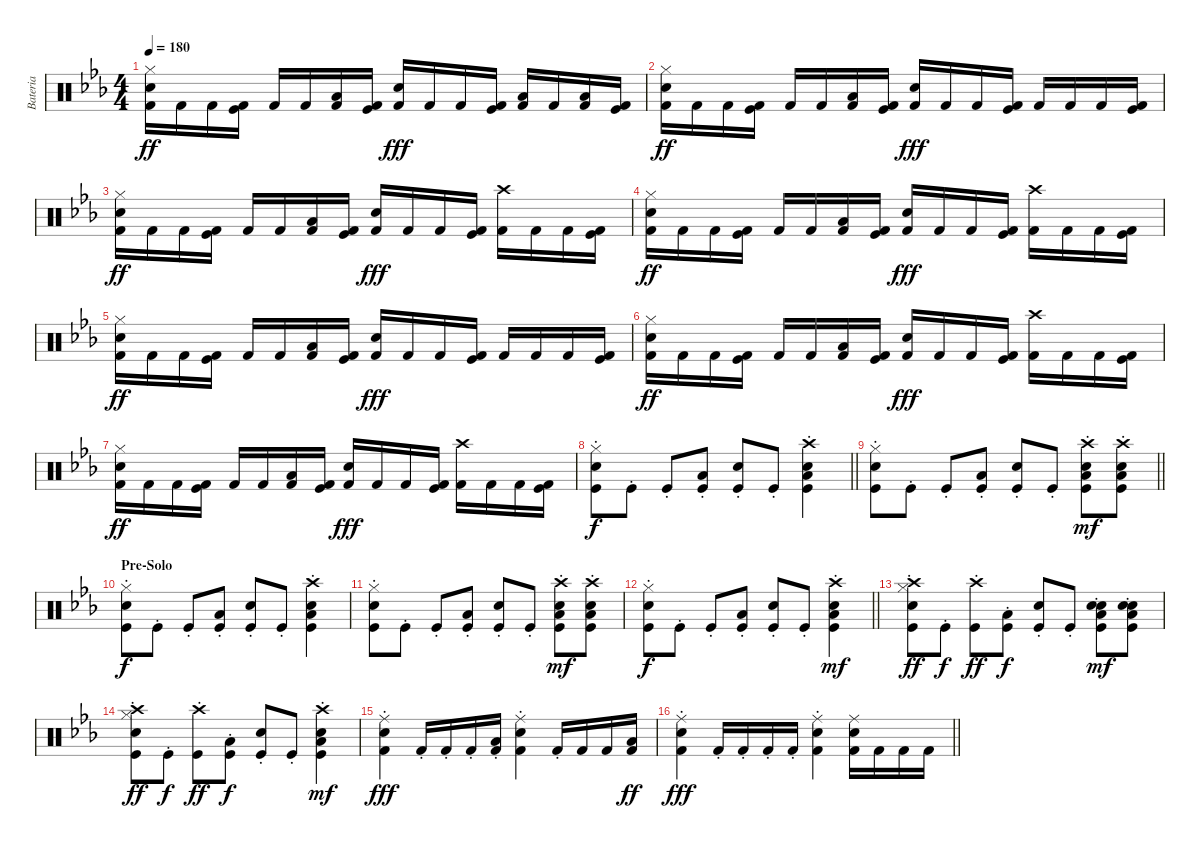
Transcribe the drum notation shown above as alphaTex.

\track ("Bateria" "Bateria") {instrument percussion}
\staff {score}
\articulation defaults
\ts (4 4)
\tempo 180
\clef neutral
\ks eb
("Hi-Hat (closed)" "Snare (hit) 2" "Kick (hit) 2").16{dy ff} "Kick (hit) 2".16 "Kick (hit) 2".16 ("Kick (hit)" "Kick (hit) 2").16 "Kick (hit) 2".16 "Kick (hit) 2".16 ("Low Tom (hit)" "Kick (hit) 2").16 ("Kick (hit)" "Kick (hit) 2").16 ("Snare (hit) 2" "Kick (hit) 2").16{dy fff} "Kick (hit) 2".16 "Kick (hit) 2".16 ("Kick (hit)" "Kick (hit) 2").16 ("Low Tom (hit)" "Kick (hit) 2").16 "Kick (hit) 2".16 ("Low Tom (hit)" "Kick (hit) 2").16 ("Kick (hit)" "Kick (hit) 2").16 |
("Hi-Hat (closed)" "Snare (hit) 2" "Kick (hit) 2").16{dy ff} "Kick (hit) 2".16 "Kick (hit) 2".16 ("Kick (hit)" "Kick (hit) 2").16 "Kick (hit) 2".16 "Kick (hit) 2".16 ("Low Tom (hit)" "Kick (hit) 2").16 ("Kick (hit)" "Kick (hit) 2").16 ("Snare (hit) 2" "Kick (hit) 2").16{dy fff} "Kick (hit) 2".16 "Kick (hit) 2".16 ("Kick (hit)" "Kick (hit) 2").16 "Kick (hit) 2".16 "Kick (hit) 2".16 "Kick (hit) 2".16 ("Kick (hit)" "Kick (hit) 2").16 |
("Hi-Hat (closed)" "Snare (hit) 2" "Kick (hit) 2").16{dy ff} "Kick (hit) 2".16 "Kick (hit) 2".16 ("Kick (hit)" "Kick (hit) 2").16 "Kick (hit) 2".16 "Kick (hit) 2".16 ("Low Tom (hit)" "Kick (hit) 2").16 ("Kick (hit)" "Kick (hit) 2").16 ("Snare (hit) 2" "Kick (hit) 2").16{dy fff} "Kick (hit) 2".16 "Kick (hit) 2".16 ("Kick (hit)" "Kick (hit) 2").16 ("Crash high (hit)" "Kick (hit) 2").16 "Kick (hit) 2".16 "Kick (hit) 2".16 ("Kick (hit)" "Kick (hit) 2").16 |
("Hi-Hat (closed)" "Snare (hit) 2" "Kick (hit) 2").16{dy ff} "Kick (hit) 2".16 "Kick (hit) 2".16 ("Kick (hit)" "Kick (hit) 2").16 "Kick (hit) 2".16 "Kick (hit) 2".16 ("Low Tom (hit)" "Kick (hit) 2").16 ("Kick (hit)" "Kick (hit) 2").16 ("Snare (hit) 2" "Kick (hit) 2").16{dy fff} "Kick (hit) 2".16 "Kick (hit) 2".16 ("Kick (hit)" "Kick (hit) 2").16 ("Crash high (hit)" "Kick (hit) 2").16 "Kick (hit) 2".16 "Kick (hit) 2".16 ("Kick (hit)" "Kick (hit) 2").16 |
("Hi-Hat (closed)" "Snare (hit) 2" "Kick (hit) 2").16{dy ff} "Kick (hit) 2".16 "Kick (hit) 2".16 ("Kick (hit)" "Kick (hit) 2").16 "Kick (hit) 2".16 "Kick (hit) 2".16 ("Low Tom (hit)" "Kick (hit) 2").16 ("Kick (hit)" "Kick (hit) 2").16 ("Snare (hit) 2" "Kick (hit) 2").16{dy fff} "Kick (hit) 2".16 "Kick (hit) 2".16 ("Kick (hit)" "Kick (hit) 2").16 "Kick (hit) 2".16 "Kick (hit) 2".16 "Kick (hit) 2".16 ("Kick (hit)" "Kick (hit) 2").16 |
("Hi-Hat (closed)" "Snare (hit) 2" "Kick (hit) 2").16{dy ff} "Kick (hit) 2".16 "Kick (hit) 2".16 ("Kick (hit)" "Kick (hit) 2").16 "Kick (hit) 2".16 "Kick (hit) 2".16 ("Low Tom (hit)" "Kick (hit) 2").16 ("Kick (hit)" "Kick (hit) 2").16 ("Snare (hit) 2" "Kick (hit) 2").16{dy fff} "Kick (hit) 2".16 "Kick (hit) 2".16 ("Kick (hit)" "Kick (hit) 2").16 ("Crash high (hit)" "Kick (hit) 2").16 "Kick (hit) 2".16 "Kick (hit) 2".16 ("Kick (hit)" "Kick (hit) 2").16 |
("Hi-Hat (closed)" "Snare (hit) 2" "Kick (hit) 2").16{dy ff} "Kick (hit) 2".16 "Kick (hit) 2".16 ("Kick (hit)" "Kick (hit) 2").16 "Kick (hit) 2".16 "Kick (hit) 2".16 ("Low Tom (hit)" "Kick (hit) 2").16 ("Kick (hit)" "Kick (hit) 2").16 ("Snare (hit) 2" "Kick (hit) 2").16{dy fff} "Kick (hit) 2".16 "Kick (hit) 2".16 ("Kick (hit)" "Kick (hit) 2").16 ("Crash high (hit)" "Kick (hit) 2").16 "Kick (hit) 2".16 "Kick (hit) 2".16 ("Kick (hit)" "Kick (hit) 2").16 |
\barLineRight lightlight
("Hi-Hat (closed)"{st} "Snare (hit) 2"{st} "Kick (hit)"{st}).8{dy f} "Kick (hit)"{st}.8 "Kick (hit)"{st}.8 ("Low Tom (hit)"{st} "Kick (hit)"{st}).8 ("Snare (hit) 2"{st} "Kick (hit)"{st}).8 "Kick (hit)"{st}.8 ("Snare (hit) 2" "Low Tom (hit)" "Crash high (hit)" "Kick (hit)"{st}).4 |
\section ("" "")
\barLineRight lightlight
("Hi-Hat (closed)"{st} "Snare (hit) 2"{st} "Kick (hit)"{st}).8 "Kick (hit)"{st}.8 "Kick (hit)"{st}.8 ("Low Tom (hit)"{st} "Kick (hit)"{st}).8 ("Snare (hit) 2"{st} "Kick (hit)"{st}).8 "Kick (hit)"{st}.8 ("Snare (hit) 2" "Crash high (hit)"{st} "Low Tom (hit)"{st} "Kick (hit)"{st}).8{dy mf} ("Snare (hit) 2" "Crash high (hit)"{st} "Low Tom (hit)"{st} "Kick (hit)"{st}).8 |
\section ("" "Pre-Solo")
("Hi-Hat (closed)"{st} "Snare (hit) 2"{st} "Kick (hit)"{st}).8{dy f} "Kick (hit)"{st}.8 "Kick (hit)"{st}.8 ("Low Tom (hit)"{st} "Kick (hit)"{st}).8 ("Snare (hit) 2"{st} "Kick (hit)"{st}).8 "Kick (hit)"{st}.8 ("Snare (hit) 2" "Low Tom (hit)" "Crash high (hit)" "Kick (hit)"{st}).4 |
("Hi-Hat (closed)"{st} "Snare (hit) 2"{st} "Kick (hit)"{st}).8 "Kick (hit)"{st}.8 "Kick (hit)"{st}.8 ("Low Tom (hit)"{st} "Kick (hit)"{st}).8 ("Snare (hit) 2"{st} "Kick (hit)"{st}).8 "Kick (hit)"{st}.8 ("Snare (hit) 2" "Crash high (hit)"{st} "Low Tom (hit)"{st} "Kick (hit)"{st}).8{dy mf} ("Snare (hit) 2" "Crash high (hit)"{st} "Low Tom (hit)"{st} "Kick (hit)"{st}).8 |
\barLineRight lightlight
("Hi-Hat (closed)"{st} "Snare (hit) 2"{st} "Kick (hit)"{st}).8{dy f} "Kick (hit)"{st}.8 "Kick (hit)"{st}.8 ("Low Tom (hit)"{st} "Kick (hit)"{st}).8 ("Snare (hit) 2"{st} "Kick (hit)"{st}).8 "Kick (hit)"{st}.8 ("Snare (hit) 2" "Low Tom (hit)" "Crash high (hit)" "Kick (hit)"{st}).4{dy mf} |
("Crash high (hit)" "Hi-Hat (closed)"{st} "Snare (hit) 2"{st} "Kick (hit)"{st}).8{dy ff} "Kick (hit)"{st}.8{dy f} ("Crash high (hit)" "Kick (hit)"{st}).8{dy ff} ("Low Tom (hit)"{st} "Kick (hit)"{st}).8{dy f} ("Snare (hit) 2"{st} "Kick (hit)"{st}).8 "Kick (hit)"{st}.8 ("Snare (hit) 2" "Snare (hit) 2" "Low Tom (hit)"{st} "Kick (hit)"{st}).8{dy mf} ("Snare (hit) 2" "Snare (hit) 2" "Low Tom (hit)"{st} "Kick (hit)"{st}).8 |
("Crash high (hit)" "Hi-Hat (closed)"{st} "Snare (hit) 2"{st} "Kick (hit)"{st}).8{dy ff} "Kick (hit)"{st}.8{dy f} ("Crash high (hit)" "Kick (hit)"{st}).8{dy ff} ("Low Tom (hit)"{st} "Kick (hit)"{st}).8{dy f} ("Snare (hit) 2"{st} "Kick (hit)"{st}).8 "Kick (hit)"{st}.8 ("Snare (hit) 2" "Low Tom (hit)" "Crash high (hit)" "Kick (hit)"{st}).4{dy mf} |
("Ride (middle)"{st} "Snare (hit) 2"{st} "Kick (hit) 2"{st}).4{dy fff} "Kick (hit) 2"{st}.16 "Kick (hit) 2"{st}.16 "Kick (hit) 2"{st}.16 ("Low Tom (hit)" "Kick (hit) 2"{st}).16 ("Ride (middle)"{st} "Snare (hit) 2"{st} "Kick (hit) 2"{st}).4 "Kick (hit) 2"{st}.16 "Kick (hit) 2".16 "Kick (hit) 2".16 ("Low Tom (hit)" "Kick (hit) 2").16{dy ff} |
\barLineRight lightlight
("Ride (middle)"{st} "Snare (hit) 2"{st} "Kick (hit) 2"{st}).4{dy fff} "Kick (hit) 2"{st}.16 "Kick (hit) 2"{st}.16 "Kick (hit) 2"{st}.16 "Kick (hit) 2"{st}.16 ("Ride (middle)" "Snare (hit) 2" "Kick (hit) 2"{st}).4 ("Ride (middle)" "Snare (hit) 2" "Kick (hit) 2").16 "Kick (hit) 2".16 "Kick (hit) 2".16 "Kick (hit) 2".16
